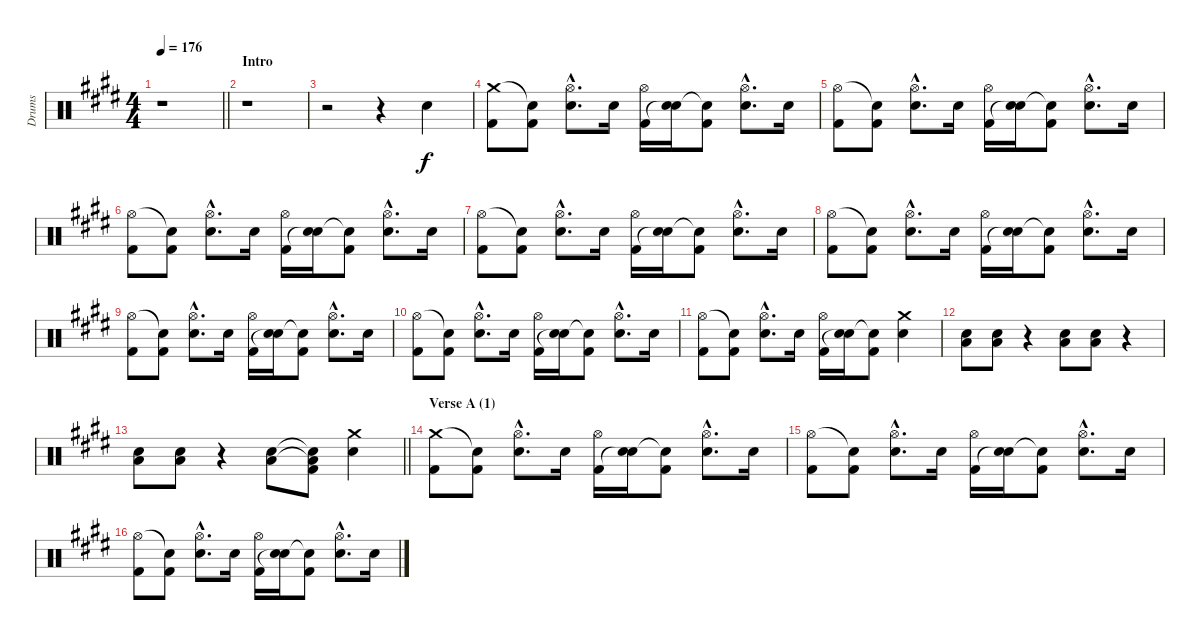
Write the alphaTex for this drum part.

\track ("Drums" "Drums") {instrument percussion}
\staff {score}
\articulation defaults
\ts (4 4)
\tempo 176
\clef neutral
\barLineRight lightlight
\ks c#minor
r.1{dy f} |
\section ("" "Intro")
r.1 |
r.2 r.4 "Electric Snare (hit)".4 |
("Crash medium (hit)" "Kick (hit) 2").8 ("Snare (hit)"{t} "Kick (hit) 2").8 ("Hi-Hat (open)"{hac} "Electric Snare (hit)"{hac}).8{d} "Electric Snare (hit)".16 ("Hi-Hat (open)" "Kick (hit) 2").16 ("Electric Snare (hit)" "Snare (hit)"{t}).16 ("Snare (hit)"{t} "Kick (hit) 2").8 ("Hi-Hat (open)"{hac} "Electric Snare (hit)"{hac}).8{d} "Electric Snare (hit)".16 |
("Hi-Hat (open)" "Kick (hit) 2").8 ("Snare (hit)"{t} "Kick (hit) 2").8 ("Hi-Hat (open)"{hac} "Electric Snare (hit)"{hac}).8{d} "Electric Snare (hit)".16 ("Hi-Hat (open)" "Kick (hit) 2").16 ("Electric Snare (hit)" "Snare (hit)"{t}).16 ("Snare (hit)"{t} "Kick (hit) 2").8 ("Hi-Hat (open)"{hac} "Electric Snare (hit)"{hac}).8{d} "Electric Snare (hit)".16 |
("Hi-Hat (open)" "Kick (hit) 2").8 ("Snare (hit)"{t} "Kick (hit) 2").8 ("Hi-Hat (open)"{hac} "Electric Snare (hit)"{hac}).8{d} "Electric Snare (hit)".16 ("Hi-Hat (open)" "Kick (hit) 2").16 ("Electric Snare (hit)" "Snare (hit)"{t}).16 ("Snare (hit)"{t} "Kick (hit) 2").8 ("Hi-Hat (open)"{hac} "Electric Snare (hit)"{hac}).8{d} "Electric Snare (hit)".16 |
("Hi-Hat (open)" "Kick (hit) 2").8 ("Snare (hit)"{t} "Kick (hit) 2").8 ("Hi-Hat (open)"{hac} "Electric Snare (hit)"{hac}).8{d} "Electric Snare (hit)".16 ("Hi-Hat (open)" "Kick (hit) 2").16 ("Electric Snare (hit)" "Snare (hit)"{t}).16 ("Snare (hit)"{t} "Kick (hit) 2").8 ("Hi-Hat (open)"{hac} "Electric Snare (hit)"{hac}).8{d} "Electric Snare (hit)".16 |
("Hi-Hat (open)" "Kick (hit) 2").8 ("Snare (hit)"{t} "Kick (hit) 2").8 ("Hi-Hat (open)"{hac} "Electric Snare (hit)"{hac}).8{d} "Electric Snare (hit)".16 ("Hi-Hat (open)" "Kick (hit) 2").16 ("Electric Snare (hit)" "Snare (hit)"{t}).16 ("Snare (hit)"{t} "Kick (hit) 2").8 ("Hi-Hat (open)"{hac} "Electric Snare (hit)"{hac}).8{d} "Electric Snare (hit)".16 |
("Hi-Hat (open)" "Kick (hit) 2").8 ("Snare (hit)"{t} "Kick (hit) 2").8 ("Hi-Hat (open)"{hac} "Electric Snare (hit)"{hac}).8{d} "Electric Snare (hit)".16 ("Hi-Hat (open)" "Kick (hit) 2").16 ("Electric Snare (hit)" "Snare (hit)"{t}).16 ("Snare (hit)"{t} "Kick (hit) 2").8 ("Hi-Hat (open)"{hac} "Electric Snare (hit)"{hac}).8{d} "Electric Snare (hit)".16 |
("Hi-Hat (open)" "Kick (hit) 2").8 ("Snare (hit)"{t} "Kick (hit) 2").8 ("Hi-Hat (open)"{hac} "Electric Snare (hit)"{hac}).8{d} "Electric Snare (hit)".16 ("Hi-Hat (open)" "Kick (hit) 2").16 ("Electric Snare (hit)" "Snare (hit)"{t}).16 ("Snare (hit)"{t} "Kick (hit) 2").8 ("Hi-Hat (open)"{hac} "Electric Snare (hit)"{hac}).8{d} "Electric Snare (hit)".16 |
("Hi-Hat (open)" "Kick (hit) 2").8 ("Snare (hit)"{t} "Kick (hit) 2").8 ("Hi-Hat (open)"{hac} "Electric Snare (hit)"{hac}).8{d} "Electric Snare (hit)".16 ("Hi-Hat (open)" "Kick (hit) 2").16 ("Electric Snare (hit)" "Snare (hit)"{t}).16 ("Snare (hit)"{t} "Kick (hit) 2").8 ("Crash medium (hit)" "Electric Snare (hit)").4 |
("Electric Snare (hit)" "Low Floor Tom (hit)").8 ("Electric Snare (hit)" "Low Floor Tom (hit)").8 r.4 ("Electric Snare (hit)" "Low Floor Tom (hit)").8 ("Electric Snare (hit)" "Low Floor Tom (hit)").8 r.4 |
\barLineRight lightlight
("Electric Snare (hit)" "Low Floor Tom (hit)").8 ("Electric Snare (hit)" "Low Floor Tom (hit)").8 r.4 ("Electric Snare (hit)" "Low Floor Tom (hit)").8 ("Electric Snare (hit)"{t} "Low Floor Tom (hit)"{t} "Kick (hit) 2").8 ("Crash medium (hit)" "Electric Snare (hit)").4 |
\section ("" "Verse A (1)")
("Crash medium (hit)" "Kick (hit) 2").8 ("Snare (hit)"{t} "Kick (hit) 2").8 ("Hi-Hat (open)"{hac} "Electric Snare (hit)"{hac}).8{d} "Electric Snare (hit)".16 ("Hi-Hat (open)" "Kick (hit) 2").16 ("Electric Snare (hit)" "Snare (hit)"{t}).16 ("Snare (hit)"{t} "Kick (hit) 2").8 ("Hi-Hat (open)"{hac} "Electric Snare (hit)"{hac}).8{d} "Electric Snare (hit)".16 |
("Hi-Hat (open)" "Kick (hit) 2").8 ("Snare (hit)"{t} "Kick (hit) 2").8 ("Hi-Hat (open)"{hac} "Electric Snare (hit)"{hac}).8{d} "Electric Snare (hit)".16 ("Hi-Hat (open)" "Kick (hit) 2").16 ("Electric Snare (hit)" "Snare (hit)"{t}).16 ("Snare (hit)"{t} "Kick (hit) 2").8 ("Hi-Hat (open)"{hac} "Electric Snare (hit)"{hac}).8{d} "Electric Snare (hit)".16 |
("Hi-Hat (open)" "Kick (hit) 2").8 ("Snare (hit)"{t} "Kick (hit) 2").8 ("Hi-Hat (open)"{hac} "Electric Snare (hit)"{hac}).8{d} "Electric Snare (hit)".16 ("Hi-Hat (open)" "Kick (hit) 2").16 ("Electric Snare (hit)" "Snare (hit)"{t}).16 ("Snare (hit)"{t} "Kick (hit) 2").8 ("Hi-Hat (open)"{hac} "Electric Snare (hit)"{hac}).8{d} "Electric Snare (hit)".16
